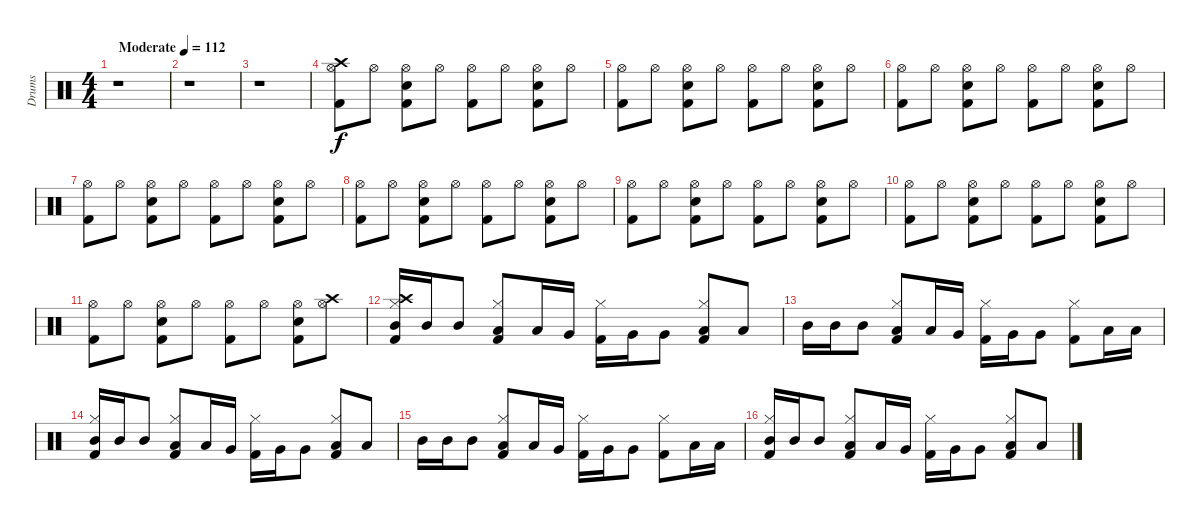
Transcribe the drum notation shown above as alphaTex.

\track ("Drums" "Drums") {instrument percussion}
\staff {score}
\articulation defaults
\ts (4 4)
\tempo (112 "Moderate")
\clef neutral
\ks c
r.1{dy f} |
r.1 |
r.1 |
("Kick (hit) 2" "Hi-Hat (open)" "Crash high (hit)").8 "Hi-Hat (open)".8 ("Snare (hit) 2" "Kick (hit) 2" "Hi-Hat (open)").8 "Hi-Hat (open)".8 ("Hi-Hat (open)" "Kick (hit) 2").8 "Hi-Hat (open)".8 ("Snare (hit) 2" "Kick (hit) 2" "Hi-Hat (open)").8 "Hi-Hat (open)".8 |
("Kick (hit) 2" "Hi-Hat (open)").8 "Hi-Hat (open)".8 ("Kick (hit) 2" "Hi-Hat (open)" "Snare (hit) 2").8 "Hi-Hat (open)".8 ("Kick (hit) 2" "Hi-Hat (open)").8 "Hi-Hat (open)".8 ("Hi-Hat (open)" "Kick (hit) 2" "Snare (hit) 2").8 "Hi-Hat (open)".8 |
("Kick (hit) 2" "Hi-Hat (open)").8 "Hi-Hat (open)".8 ("Kick (hit) 2" "Hi-Hat (open)" "Snare (hit) 2").8 "Hi-Hat (open)".8 ("Kick (hit) 2" "Hi-Hat (open)").8 "Hi-Hat (open)".8 ("Hi-Hat (open)" "Kick (hit) 2" "Snare (hit) 2").8 "Hi-Hat (open)".8 |
("Kick (hit) 2" "Hi-Hat (open)").8 "Hi-Hat (open)".8 ("Kick (hit) 2" "Hi-Hat (open)" "Snare (hit) 2").8 "Hi-Hat (open)".8 ("Kick (hit) 2" "Hi-Hat (open)").8 "Hi-Hat (open)".8 ("Hi-Hat (open)" "Kick (hit) 2" "Snare (hit) 2").8 "Hi-Hat (open)".8 |
("Kick (hit) 2" "Hi-Hat (open)").8 "Hi-Hat (open)".8 ("Kick (hit) 2" "Hi-Hat (open)" "Snare (hit) 2").8 "Hi-Hat (open)".8 ("Kick (hit) 2" "Hi-Hat (open)").8 "Hi-Hat (open)".8 ("Hi-Hat (open)" "Kick (hit) 2" "Snare (hit) 2").8 "Hi-Hat (open)".8 |
("Kick (hit) 2" "Hi-Hat (open)").8 "Hi-Hat (open)".8 ("Kick (hit) 2" "Hi-Hat (open)" "Snare (hit) 2").8 "Hi-Hat (open)".8 ("Kick (hit) 2" "Hi-Hat (open)").8 "Hi-Hat (open)".8 ("Hi-Hat (open)" "Kick (hit) 2" "Snare (hit) 2").8 "Hi-Hat (open)".8 |
("Kick (hit) 2" "Hi-Hat (open)").8 "Hi-Hat (open)".8 ("Kick (hit) 2" "Hi-Hat (open)" "Snare (hit) 2").8 "Hi-Hat (open)".8 ("Kick (hit) 2" "Hi-Hat (open)").8 "Hi-Hat (open)".8 ("Hi-Hat (open)" "Kick (hit) 2" "Snare (hit) 2").8 "Hi-Hat (open)".8 |
("Kick (hit) 2" "Hi-Hat (open)").8 "Hi-Hat (open)".8 ("Kick (hit) 2" "Hi-Hat (open)" "Snare (hit) 2").8 "Hi-Hat (open)".8 ("Kick (hit) 2" "Hi-Hat (open)").8 "Hi-Hat (open)".8 ("Hi-Hat (open)" "Kick (hit) 2" "Snare (hit) 2").8 ("Hi-Hat (open)" "Crash high (hit)").8 |
("Crash high (hit)" "Hi-Hat (closed)" "Mid Tom (hit)" "Kick (hit) 2").16 "Mid Tom (hit)".16 "Mid Tom (hit)".8 ("Kick (hit) 2" "Hi-Hat (closed)" "Low Tom (hit)").8 "Low Tom (hit)".16 "Very Low Tom (hit)".16 ("Kick (hit) 2" "Hi-Hat (closed)").16 "Very Low Tom (hit)".16 "Very Low Tom (hit)".8 ("Hi-Hat (closed)" "Kick (hit) 2" "Low Floor Tom (hit)").8 "Low Floor Tom (hit)".8 |
"Mid Tom (hit)".16 "Mid Tom (hit)".16 "Mid Tom (hit)".8 ("Hi-Hat (closed)" "Kick (hit) 2" "Low Tom (hit)").8 "Low Tom (hit)".16 "Very Low Tom (hit)".16 ("Kick (hit) 2" "Hi-Hat (closed)").16 "Very Low Tom (hit)".16 "Very Low Tom (hit)".8 ("Kick (hit) 2" "Hi-Hat (closed)").8 "Low Floor Tom (hit)".16 "Low Floor Tom (hit)".16 |
("Hi-Hat (closed)" "Kick (hit) 2" "Mid Tom (hit)").16 "Mid Tom (hit)".16 "Mid Tom (hit)".8 ("Hi-Hat (closed)" "Low Tom (hit)" "Kick (hit) 2").8 "Low Tom (hit)".16 "Very Low Tom (hit)".16 ("Kick (hit) 2" "Hi-Hat (closed)").16 "Very Low Tom (hit)".16 "Very Low Tom (hit)".8 ("Low Floor Tom (hit)" "Kick (hit) 2" "Hi-Hat (closed)").8 "Low Floor Tom (hit)".8 |
"Mid Tom (hit)".16 "Mid Tom (hit)".16 "Mid Tom (hit)".8 ("Hi-Hat (closed)" "Kick (hit) 2" "Low Tom (hit)").8 "Low Tom (hit)".16 "Very Low Tom (hit)".16 ("Kick (hit) 2" "Hi-Hat (closed)").16 "Very Low Tom (hit)".16 "Very Low Tom (hit)".8 ("Kick (hit) 2" "Hi-Hat (closed)").8 "Low Floor Tom (hit)".16 "Low Floor Tom (hit)".16 |
("Hi-Hat (closed)" "Kick (hit) 2" "Mid Tom (hit)").16 "Mid Tom (hit)".16 "Mid Tom (hit)".8 ("Hi-Hat (closed)" "Low Tom (hit)" "Kick (hit) 2").8 "Low Tom (hit)".16 "Very Low Tom (hit)".16 ("Kick (hit) 2" "Hi-Hat (closed)").16 "Very Low Tom (hit)".16 "Very Low Tom (hit)".8 ("Low Floor Tom (hit)" "Kick (hit) 2" "Hi-Hat (closed)").8 "Low Floor Tom (hit)".8
